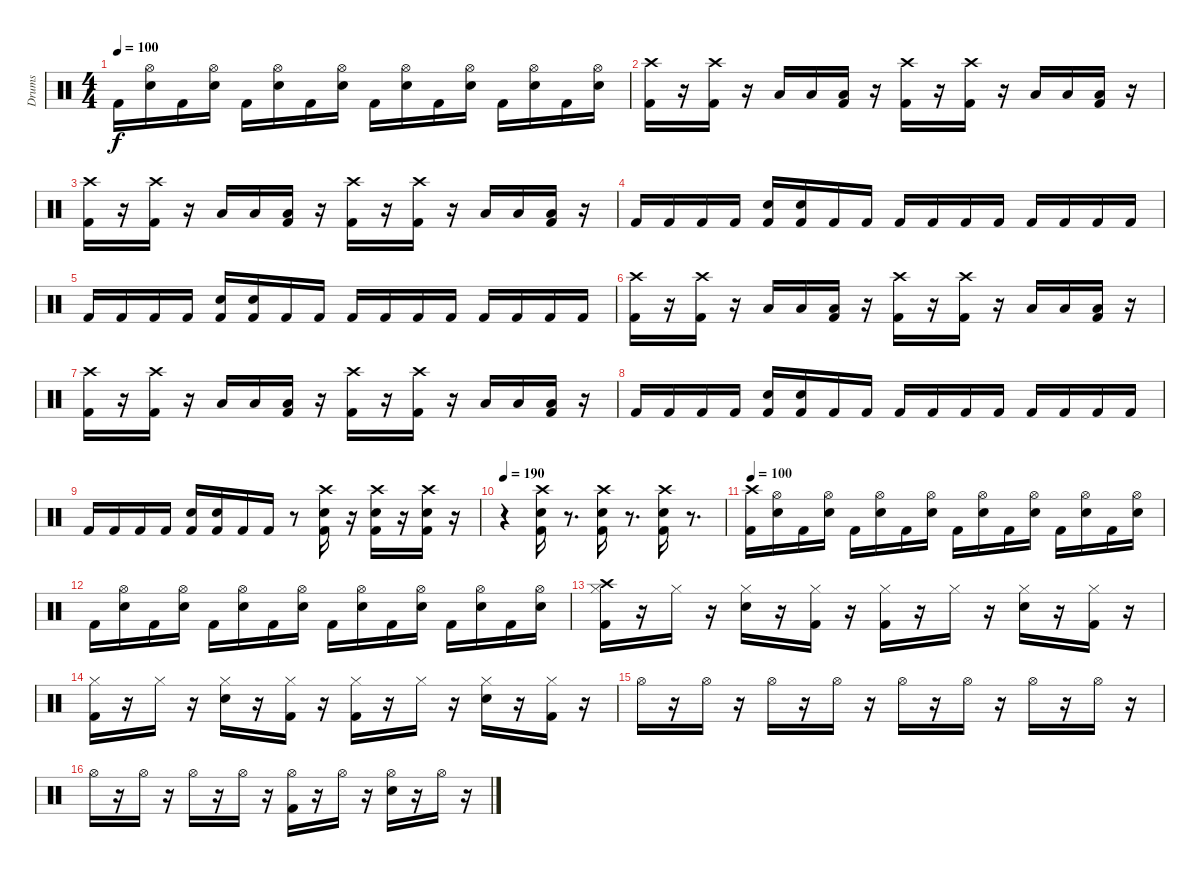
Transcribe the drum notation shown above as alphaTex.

\track ("Drums               " "Drums     ") {instrument percussion}
\staff {score}
\articulation defaults
\ts (4 4)
\tempo 100
\clef neutral
\ks c "Kick (hit) 2".16{dy f}
("Snare (hit) 2" "Hi-Hat (open)").16 "Kick (hit) 2".16 ("Snare (hit) 2" "Hi-Hat (open)").16 "Kick (hit) 2".16 ("Snare (hit) 2" "Hi-Hat (open)").16 "Kick (hit) 2".16 ("Snare (hit) 2" "Hi-Hat (open)").16 "Kick (hit) 2".16 ("Snare (hit) 2" "Hi-Hat (open)").16 "Kick (hit) 2".16 ("Snare (hit) 2" "Hi-Hat (open)").16 "Kick (hit) 2".16 ("Snare (hit) 2" "Hi-Hat (open)").16 "Kick (hit) 2".16 ("Snare (hit) 2" "Hi-Hat (open)").16 |
("Kick (hit) 2" "Crash high (hit)").16 r.16 ("Kick (hit) 2" "Crash high (hit)").16 r.16 "Low Tom (hit)".16 "Low Tom (hit)".16 ("Kick (hit) 2" "Low Tom (hit)").16 r.16 ("Kick (hit) 2" "Crash high (hit)").16 r.16 ("Kick (hit) 2" "Crash high (hit)").16 r.16 "Low Tom (hit)".16 "Low Tom (hit)".16 ("Kick (hit) 2" "Low Tom (hit)").16 r.16 |
("Kick (hit) 2" "Crash high (hit)").16 r.16 ("Kick (hit) 2" "Crash high (hit)").16 r.16 "Low Tom (hit)".16 "Low Tom (hit)".16 ("Kick (hit) 2" "Low Tom (hit)").16 r.16 ("Kick (hit) 2" "Crash high (hit)").16 r.16 ("Kick (hit) 2" "Crash high (hit)").16 r.16 "Low Tom (hit)".16 "Low Tom (hit)".16 ("Kick (hit) 2" "Low Tom (hit)").16 r.16 |
"Kick (hit) 2".16 "Kick (hit) 2".16 "Kick (hit) 2".16 "Kick (hit) 2".16 ("Kick (hit) 2" "Snare (hit) 2").16 ("Kick (hit) 2" "Snare (hit) 2").16 "Kick (hit) 2".16 "Kick (hit) 2".16 "Kick (hit) 2".16 "Kick (hit) 2".16 "Kick (hit) 2".16 "Kick (hit) 2".16 "Kick (hit) 2".16 "Kick (hit) 2".16 "Kick (hit) 2".16 "Kick (hit) 2".16 |
"Kick (hit) 2".16 "Kick (hit) 2".16 "Kick (hit) 2".16 "Kick (hit) 2".16 ("Kick (hit) 2" "Snare (hit) 2").16 ("Kick (hit) 2" "Snare (hit) 2").16 "Kick (hit) 2".16 "Kick (hit) 2".16 "Kick (hit) 2".16 "Kick (hit) 2".16 "Kick (hit) 2".16 "Kick (hit) 2".16 "Kick (hit) 2".16 "Kick (hit) 2".16 "Kick (hit) 2".16 "Kick (hit) 2".16 |
("Kick (hit) 2" "Crash high (hit)").16 r.16 ("Kick (hit) 2" "Crash high (hit)").16 r.16 "Low Tom (hit)".16 "Low Tom (hit)".16 ("Kick (hit) 2" "Low Tom (hit)").16 r.16 ("Kick (hit) 2" "Crash high (hit)").16 r.16 ("Kick (hit) 2" "Crash high (hit)").16 r.16 "Low Tom (hit)".16 "Low Tom (hit)".16 ("Kick (hit) 2" "Low Tom (hit)").16 r.16 |
("Kick (hit) 2" "Crash high (hit)").16 r.16 ("Kick (hit) 2" "Crash high (hit)").16 r.16 "Low Tom (hit)".16 "Low Tom (hit)".16 ("Kick (hit) 2" "Low Tom (hit)").16 r.16 ("Kick (hit) 2" "Crash high (hit)").16 r.16 ("Kick (hit) 2" "Crash high (hit)").16 r.16 "Low Tom (hit)".16 "Low Tom (hit)".16 ("Kick (hit) 2" "Low Tom (hit)").16 r.16 |
"Kick (hit) 2".16 "Kick (hit) 2".16 "Kick (hit) 2".16 "Kick (hit) 2".16 ("Kick (hit) 2" "Snare (hit) 2").16 ("Kick (hit) 2" "Snare (hit) 2").16 "Kick (hit) 2".16 "Kick (hit) 2".16 "Kick (hit) 2".16 "Kick (hit) 2".16 "Kick (hit) 2".16 "Kick (hit) 2".16 "Kick (hit) 2".16 "Kick (hit) 2".16 "Kick (hit) 2".16 "Kick (hit) 2".16 |
"Kick (hit) 2".16 "Kick (hit) 2".16 "Kick (hit) 2".16 "Kick (hit) 2".16 ("Kick (hit) 2" "Snare (hit) 2").16 ("Kick (hit) 2" "Snare (hit) 2").16 "Kick (hit) 2".16 "Kick (hit) 2".16 r.8 ("Kick (hit) 2" "Snare (hit) 2" "Crash high (hit)").16 r.16 ("Kick (hit) 2" "Snare (hit) 2" "Crash high (hit)").16 r.16 ("Kick (hit) 2" "Snare (hit) 2" "Crash high (hit)").16 r.16 |
\tempo 190
r.4 ("Kick (hit) 2" "Snare (hit) 2" "Crash high (hit)").16 r.8{d} ("Kick (hit) 2" "Snare (hit) 2" "Crash high (hit)").16 r.8{d} ("Kick (hit) 2" "Snare (hit) 2" "Crash high (hit)").16 r.8{d} |
\tempo 100
("Kick (hit) 2" "Crash high (hit)").16 ("Snare (hit) 2" "Hi-Hat (open)").16 "Kick (hit) 2".16 ("Snare (hit) 2" "Hi-Hat (open)").16 "Kick (hit) 2".16 ("Snare (hit) 2" "Hi-Hat (open)").16 "Kick (hit) 2".16 ("Snare (hit) 2" "Hi-Hat (open)").16 "Kick (hit) 2".16 ("Snare (hit) 2" "Hi-Hat (open)").16 "Kick (hit) 2".16 ("Snare (hit) 2" "Hi-Hat (open)").16 "Kick (hit) 2".16 ("Snare (hit) 2" "Hi-Hat (open)").16 "Kick (hit) 2".16 ("Snare (hit) 2" "Hi-Hat (open)").16 |
"Kick (hit) 2".16 ("Snare (hit) 2" "Hi-Hat (open)").16 "Kick (hit) 2".16 ("Snare (hit) 2" "Hi-Hat (open)").16 "Kick (hit) 2".16 ("Snare (hit) 2" "Hi-Hat (open)").16 "Kick (hit) 2".16 ("Snare (hit) 2" "Hi-Hat (open)").16 "Kick (hit) 2".16 ("Snare (hit) 2" "Hi-Hat (open)").16 "Kick (hit) 2".16 ("Snare (hit) 2" "Hi-Hat (open)").16 "Kick (hit) 2".16 ("Snare (hit) 2" "Hi-Hat (open)").16 "Kick (hit) 2".16 ("Snare (hit) 2" "Hi-Hat (open)").16 |
("Kick (hit) 2" "Hi-Hat (closed)" "Crash high (hit)").16 r.16 "Hi-Hat (closed)".16 r.16 ("Snare (hit) 2" "Hi-Hat (closed)").16 r.16 ("Kick (hit) 2" "Hi-Hat (closed)").16 r.16 ("Kick (hit) 2" "Hi-Hat (closed)").16 r.16 "Hi-Hat (closed)".16 r.16 ("Snare (hit) 2" "Hi-Hat (closed)").16 r.16 ("Kick (hit) 2" "Hi-Hat (closed)").16 r.16 |
("Kick (hit) 2" "Hi-Hat (closed)").16 r.16 "Hi-Hat (closed)".16 r.16 ("Snare (hit) 2" "Hi-Hat (closed)").16 r.16 ("Kick (hit) 2" "Hi-Hat (closed)").16 r.16 ("Kick (hit) 2" "Hi-Hat (closed)").16 r.16 "Hi-Hat (closed)".16 r.16 ("Snare (hit) 2" "Hi-Hat (closed)").16 r.16 ("Kick (hit) 2" "Hi-Hat (closed)").16 r.16 |
"Hi-Hat (open)".16 r.16 "Hi-Hat (open)".16 r.16 "Hi-Hat (open)".16 r.16 "Hi-Hat (open)".16 r.16 "Hi-Hat (open)".16 r.16 "Hi-Hat (open)".16 r.16 "Hi-Hat (open)".16 r.16 "Hi-Hat (open)".16 r.16 |
"Hi-Hat (open)".16 r.16 "Hi-Hat (open)".16 r.16 "Hi-Hat (open)".16 r.16 "Hi-Hat (open)".16 r.16 ("Kick (hit) 2" "Hi-Hat (open)").16 r.16 "Hi-Hat (open)".16 r.16 ("Snare (hit) 2" "Hi-Hat (open)").16 r.16 "Hi-Hat (open)".16 r.16
